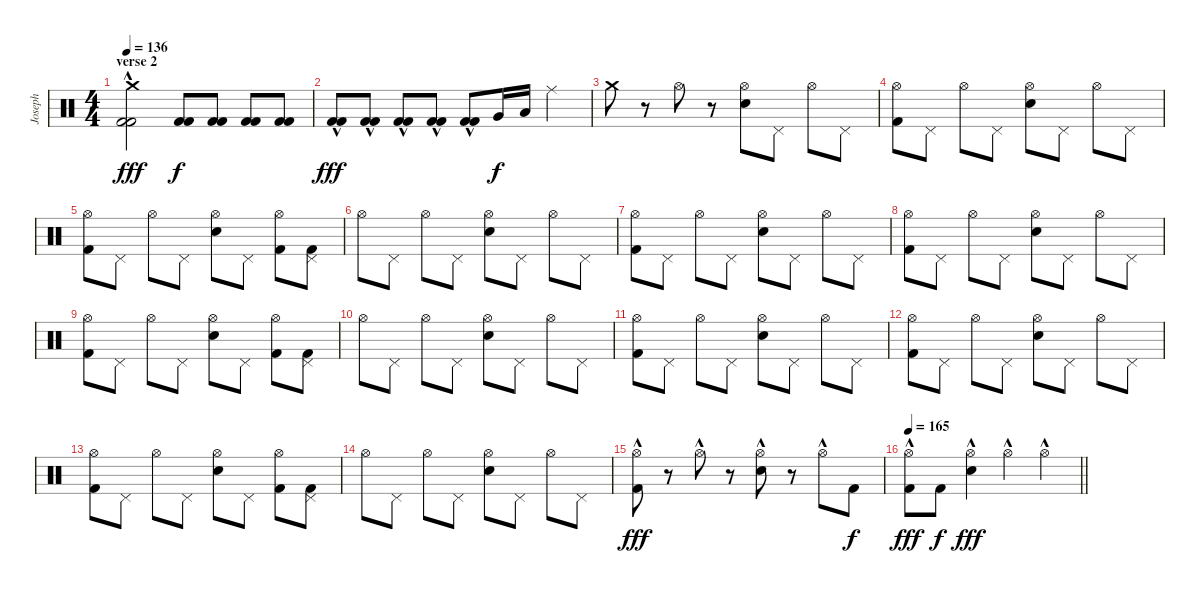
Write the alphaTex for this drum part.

\track ("Joseph" "Joseph") {instrument percussion}
\staff {score}
\articulation defaults
\ts (4 4)
\section ("" "verse 2")
\tempo 136
\clef neutral
\ks c
("Crash medium (hit)" "Kick (hit) 2"{hac} "Kick (hit) 2"{hac}).2{dy fff volume 0} ("Kick (hit) 2" "Kick (hit) 2").8{dy f volume 11} ("Kick (hit) 2" "Kick (hit) 2").8 ("Kick (hit) 2" "Kick (hit) 2").8 ("Kick (hit) 2" "Kick (hit) 2").8 |
("Kick (hit) 2" "Kick (hit) 2"{hac}).8{dy fff} ("Kick (hit) 2"{hac} "Kick (hit) 2"{hac}).8 ("Kick (hit) 2"{hac} "Kick (hit) 2"{hac}).8 ("Kick (hit) 2"{hac} "Kick (hit) 2"{hac}).8 ("Kick (hit) 2"{hac} "Kick (hit) 2"{hac}).8 "Very Low Tom (hit)".16{dy f} "Low Tom (hit)".16 "Ride (middle)".4 |
"Crash medium (hit)".8 r.8 "Hi-Hat (open)".8 r.8 ("Electric Snare (hit)" "Hi-Hat (open)").8 "Pedal Hi-Hat (hit)".8 "Hi-Hat (open)".8 "Pedal Hi-Hat (hit)".8 |
("Kick (hit) 2" "Hi-Hat (open)").8 "Pedal Hi-Hat (hit)".8 "Hi-Hat (open)".8 "Pedal Hi-Hat (hit)".8 ("Electric Snare (hit)" "Hi-Hat (open)").8 "Pedal Hi-Hat (hit)".8 "Hi-Hat (open)".8 "Pedal Hi-Hat (hit)".8 |
("Kick (hit) 2" "Hi-Hat (open)").8 "Pedal Hi-Hat (hit)".8 "Hi-Hat (open)".8 "Pedal Hi-Hat (hit)".8 ("Electric Snare (hit)" "Hi-Hat (open)").8 "Pedal Hi-Hat (hit)".8 ("Kick (hit) 2" "Hi-Hat (open)").8 ("Kick (hit) 2" "Pedal Hi-Hat (hit)").8 |
"Hi-Hat (open)".8 "Pedal Hi-Hat (hit)".8 "Hi-Hat (open)".8 "Pedal Hi-Hat (hit)".8 ("Electric Snare (hit)" "Hi-Hat (open)").8 "Pedal Hi-Hat (hit)".8 "Hi-Hat (open)".8 "Pedal Hi-Hat (hit)".8 |
("Kick (hit) 2" "Hi-Hat (open)").8 "Pedal Hi-Hat (hit)".8 "Hi-Hat (open)".8 "Pedal Hi-Hat (hit)".8 ("Electric Snare (hit)" "Hi-Hat (open)").8 "Pedal Hi-Hat (hit)".8 "Hi-Hat (open)".8 "Pedal Hi-Hat (hit)".8 |
("Kick (hit) 2" "Hi-Hat (open)").8 "Pedal Hi-Hat (hit)".8 "Hi-Hat (open)".8 "Pedal Hi-Hat (hit)".8 ("Electric Snare (hit)" "Hi-Hat (open)").8 "Pedal Hi-Hat (hit)".8 "Hi-Hat (open)".8 "Pedal Hi-Hat (hit)".8 |
("Kick (hit) 2" "Hi-Hat (open)").8 "Pedal Hi-Hat (hit)".8 "Hi-Hat (open)".8 "Pedal Hi-Hat (hit)".8 ("Electric Snare (hit)" "Hi-Hat (open)").8 "Pedal Hi-Hat (hit)".8 ("Kick (hit) 2" "Hi-Hat (open)").8 ("Kick (hit) 2" "Pedal Hi-Hat (hit)").8 |
"Hi-Hat (open)".8 "Pedal Hi-Hat (hit)".8 "Hi-Hat (open)".8 "Pedal Hi-Hat (hit)".8 ("Electric Snare (hit)" "Hi-Hat (open)").8 "Pedal Hi-Hat (hit)".8 "Hi-Hat (open)".8 "Pedal Hi-Hat (hit)".8 |
("Kick (hit) 2" "Hi-Hat (open)").8 "Pedal Hi-Hat (hit)".8 "Hi-Hat (open)".8 "Pedal Hi-Hat (hit)".8 ("Electric Snare (hit)" "Hi-Hat (open)").8 "Pedal Hi-Hat (hit)".8 "Hi-Hat (open)".8 "Pedal Hi-Hat (hit)".8 |
("Kick (hit) 2" "Hi-Hat (open)").8 "Pedal Hi-Hat (hit)".8 "Hi-Hat (open)".8 "Pedal Hi-Hat (hit)".8 ("Electric Snare (hit)" "Hi-Hat (open)").8 "Pedal Hi-Hat (hit)".8 "Hi-Hat (open)".8 "Pedal Hi-Hat (hit)".8 |
("Kick (hit) 2" "Hi-Hat (open)").8 "Pedal Hi-Hat (hit)".8 "Hi-Hat (open)".8 "Pedal Hi-Hat (hit)".8 ("Electric Snare (hit)" "Hi-Hat (open)").8 "Pedal Hi-Hat (hit)".8 ("Kick (hit) 2" "Hi-Hat (open)").8 ("Kick (hit) 2" "Pedal Hi-Hat (hit)").8 |
"Hi-Hat (open)".8 "Pedal Hi-Hat (hit)".8 "Hi-Hat (open)".8 "Pedal Hi-Hat (hit)".8 ("Electric Snare (hit)" "Hi-Hat (open)").8 "Pedal Hi-Hat (hit)".8 "Hi-Hat (open)".8 "Pedal Hi-Hat (hit)".8 |
("Kick (hit) 2" "Hi-Hat (open)"{hac}).8{dy fff} r.8 "Hi-Hat (open)"{hac}.8 r.8 ("Electric Snare (hit)" "Hi-Hat (open)"{hac}).8 r.8 "Hi-Hat (open)"{hac}.8 "Kick (hit) 2".8{dy f} |
\tempo 165
\barLineRight lightlight
("Kick (hit) 2" "Hi-Hat (open)"{hac}).8{dy fff} "Kick (hit) 2".8{dy f} ("Electric Snare (hit)" "Hi-Hat (open)"{hac}).4{dy fff} "Hi-Hat (open)"{hac}.4 "Hi-Hat (open)"{hac}.4
